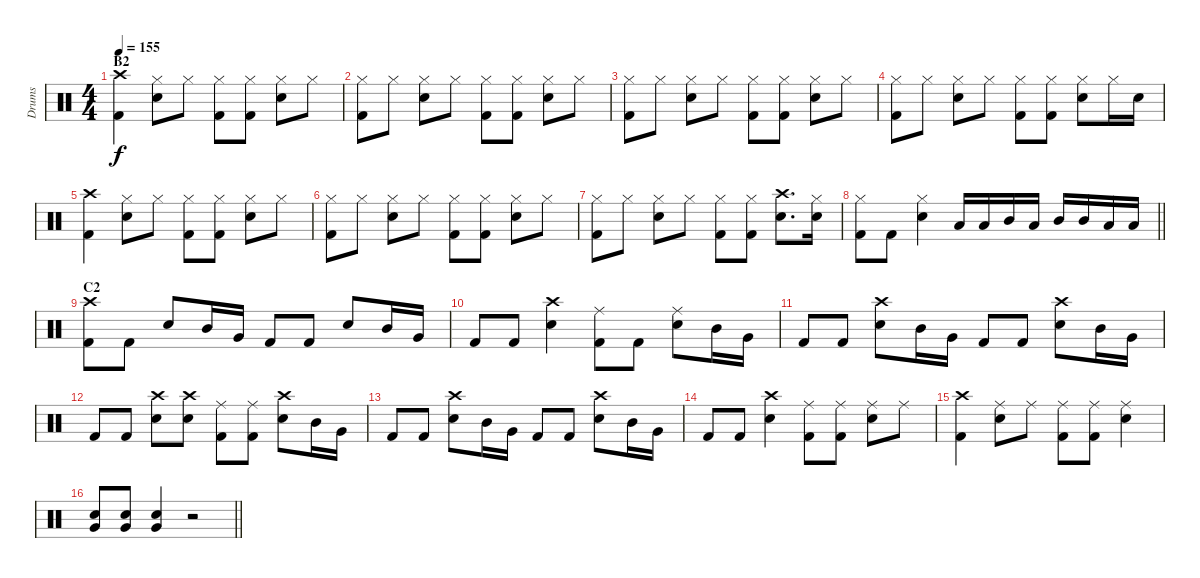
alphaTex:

\track ("Drums" "Drums") {instrument percussion}
\staff {score}
\articulation defaults
\ts (4 4)
\section ("" "B2")
\tempo 155
\clef neutral
\ks c
("Crash high (hit)" "Kick (hit) 2").4{dy f} ("Hi-Hat (closed)" "Snare (hit) 2").8 "Hi-Hat (closed)".8 ("Hi-Hat (closed)" "Kick (hit) 2").8 ("Hi-Hat (closed)" "Kick (hit) 2").8 ("Hi-Hat (closed)" "Snare (hit) 2").8 "Hi-Hat (closed)".8 |
("Hi-Hat (closed)" "Kick (hit) 2").8 "Hi-Hat (closed)".8 ("Hi-Hat (closed)" "Snare (hit) 2").8 "Hi-Hat (closed)".8 ("Hi-Hat (closed)" "Kick (hit) 2").8 ("Hi-Hat (closed)" "Kick (hit) 2").8 ("Hi-Hat (closed)" "Snare (hit) 2").8 "Hi-Hat (closed)".8 |
("Hi-Hat (closed)" "Kick (hit) 2").8 "Hi-Hat (closed)".8 ("Hi-Hat (closed)" "Snare (hit) 2").8 "Hi-Hat (closed)".8 ("Hi-Hat (closed)" "Kick (hit) 2").8 ("Hi-Hat (closed)" "Kick (hit) 2").8 ("Hi-Hat (closed)" "Snare (hit) 2").8 "Hi-Hat (closed)".8 |
("Hi-Hat (closed)" "Kick (hit) 2").8 "Hi-Hat (closed)".8 ("Hi-Hat (closed)" "Snare (hit) 2").8 "Hi-Hat (closed)".8 ("Hi-Hat (closed)" "Kick (hit) 2").8 ("Hi-Hat (closed)" "Kick (hit) 2").8 ("Hi-Hat (closed)" "Snare (hit) 2").8 "Hi-Hat (closed)".16 "Snare (hit) 2".16 |
("Crash high (hit)" "Kick (hit) 2").4 ("Hi-Hat (closed)" "Snare (hit) 2").8 "Hi-Hat (closed)".8 ("Hi-Hat (closed)" "Kick (hit) 2").8 ("Hi-Hat (closed)" "Kick (hit) 2").8 ("Hi-Hat (closed)" "Snare (hit) 2").8 "Hi-Hat (closed)".8 |
("Hi-Hat (closed)" "Kick (hit) 2").8 "Hi-Hat (closed)".8 ("Hi-Hat (closed)" "Snare (hit) 2").8 "Hi-Hat (closed)".8 ("Hi-Hat (closed)" "Kick (hit) 2").8 ("Hi-Hat (closed)" "Kick (hit) 2").8 ("Hi-Hat (closed)" "Snare (hit) 2").8 "Hi-Hat (closed)".8 |
("Hi-Hat (closed)" "Kick (hit) 2").8 "Hi-Hat (closed)".8 ("Hi-Hat (closed)" "Snare (hit) 2").8 "Hi-Hat (closed)".8 ("Hi-Hat (closed)" "Kick (hit) 2").8 ("Hi-Hat (closed)" "Kick (hit) 2").8 ("Crash high (hit)" "Snare (hit) 2").8{d} ("Hi-Hat (closed)" "Snare (hit) 2").16 |
\barLineRight lightlight
("Hi-Hat (closed)" "Kick (hit) 2").8 "Kick (hit) 2".8 ("Hi-Hat (closed)" "Snare (hit) 2").4 "Low Tom (hit)".16 "Low Tom (hit)".16 "Mid Tom (hit)".16 "Low Tom (hit)".16 "Mid Tom (hit)".16 "Mid Tom (hit)".16 "Low Tom (hit)".16 "Low Tom (hit)".16 |
\section ("" "C2")
("Crash high (hit)" "Kick (hit) 2").8 "Kick (hit) 2".8 "Snare (hit) 2".8 "Mid Tom (hit)".16 "Very Low Tom (hit)".16 "Kick (hit) 2".8 "Kick (hit) 2".8 "Snare (hit) 2".8 "Mid Tom (hit)".16 "Very Low Tom (hit)".16 |
"Kick (hit) 2".8 "Kick (hit) 2".8 ("Crash high (hit)" "Snare (hit) 2").4 ("Ride (middle)" "Kick (hit) 2").8 "Kick (hit) 2".8 ("Ride (middle)" "Snare (hit) 2").8 "Mid Tom (hit)".16 "Very Low Tom (hit)".16 |
"Kick (hit) 2".8 "Kick (hit) 2".8 ("Crash high (hit)" "Snare (hit) 2").8 "Mid Tom (hit)".16 "Very Low Tom (hit)".16 "Kick (hit) 2".8 "Kick (hit) 2".8 ("Crash high (hit)" "Snare (hit) 2").8 "Mid Tom (hit)".16 "Very Low Tom (hit)".16 |
"Kick (hit) 2".8 "Kick (hit) 2".8 ("Crash high (hit)" "Snare (hit) 2").8 ("Crash high (hit)" "Snare (hit) 2").8 ("Ride (middle)" "Kick (hit) 2").8 ("Ride (middle)" "Kick (hit) 2").8 ("Crash high (hit)" "Snare (hit) 2").8 "Mid Tom (hit)".16 "Very Low Tom (hit)".16 |
"Kick (hit) 2".8 "Kick (hit) 2".8 ("Crash high (hit)" "Snare (hit) 2").8 "Mid Tom (hit)".16 "Very Low Tom (hit)".16 "Kick (hit) 2".8 "Kick (hit) 2".8 ("Crash high (hit)" "Snare (hit) 2").8 "Mid Tom (hit)".16 "Very Low Tom (hit)".16 |
"Kick (hit) 2".8 "Kick (hit) 2".8 ("Crash high (hit)" "Snare (hit) 2").4 ("Ride (middle)" "Kick (hit) 2").8 ("Ride (middle)" "Kick (hit) 2").8 ("Ride (middle)" "Snare (hit) 2").8 "Ride (middle)".8 |
("Crash high (hit)" "Kick (hit) 2").4 ("Ride (middle)" "Snare (hit) 2").8 "Ride (middle)".8 ("Ride (middle)" "Kick (hit) 2").8 ("Ride (middle)" "Kick (hit) 2").8 ("Ride (middle)" "Snare (hit) 2").4 |
\barLineRight lightlight
("Snare (hit) 2" "Very Low Tom (hit)").8 ("Snare (hit) 2" "Very Low Tom (hit)").8 ("Snare (hit) 2" "Very Low Tom (hit)").4 r.2
